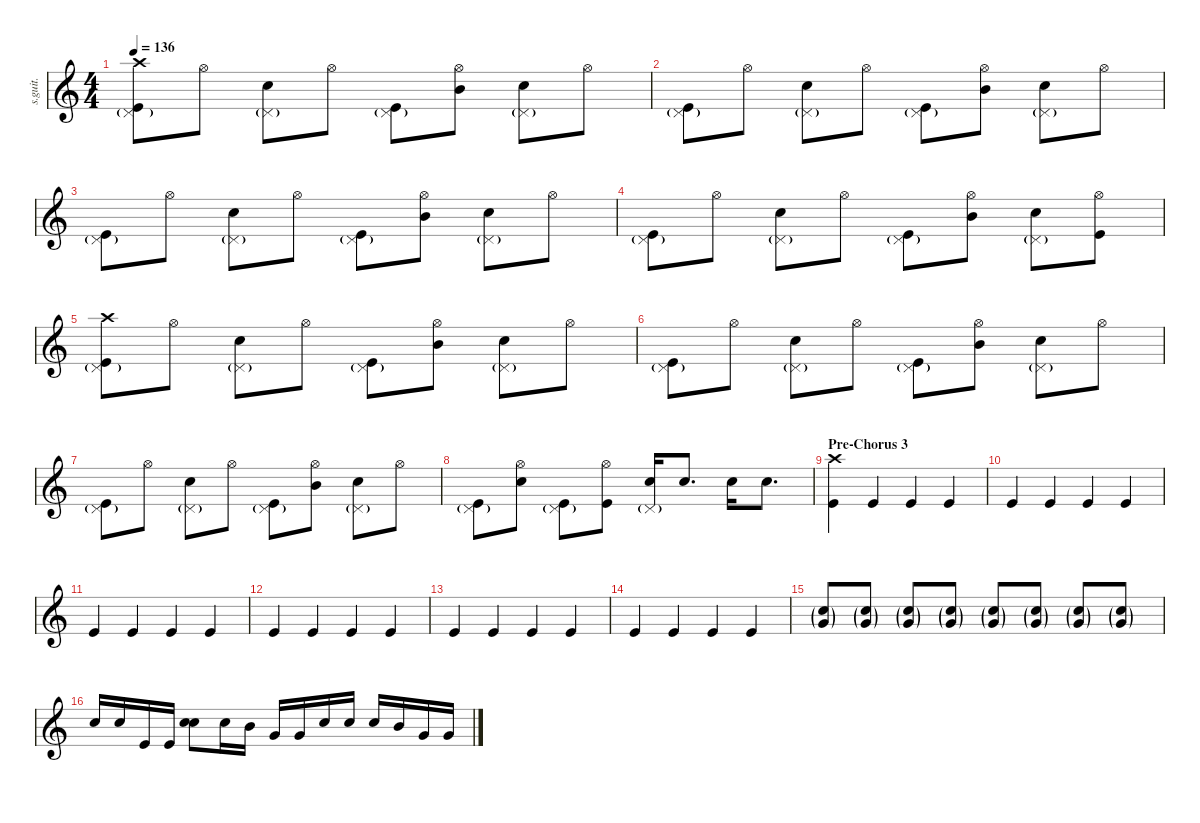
\defaultSystemsLayout 4
\hideDynamics
\bracketExtendMode nobrackets
\track ("Ilan Rubin" "s.guit.") {instrument percussion}
\staff {score}
\articulation defaults
\ts (4 4)
\tempo 136
\clef g2
\ks c
("Crash high (hit)" "Pedal Hi-Hat (hit)"{g} "Kick (hit)").8{lyrics (0 "") lyrics (1 "") lyrics (2 "") lyrics (3 "") lyrics (4 "") dy f} "Hi-Hat (open)".8{lyrics (0 "") lyrics (1 "") lyrics (2 "") lyrics (3 "") lyrics (4 "")} ("Electric Snare (hit)" "Pedal Hi-Hat (hit)"{g}).8{lyrics (0 "") lyrics (1 "") lyrics (2 "") lyrics (3 "") lyrics (4 "")} "Hi-Hat (open)".8{lyrics (0 "") lyrics (1 "") lyrics (2 "") lyrics (3 "") lyrics (4 "")} ("Pedal Hi-Hat (hit)"{g} "Kick (hit)").8{lyrics (0 "") lyrics (1 "") lyrics (2 "") lyrics (3 "") lyrics (4 "") dy mp} ("Hi-Hat (open)" "Mid Tom (hit)").8{lyrics (0 "") lyrics (1 "") lyrics (2 "") lyrics (3 "") lyrics (4 "") dy f} ("Electric Snare (hit)" "Pedal Hi-Hat (hit)"{g}).8{lyrics (0 "") lyrics (1 "") lyrics (2 "") lyrics (3 "") lyrics (4 "")} "Hi-Hat (open)".8{lyrics (0 "") lyrics (1 "") lyrics (2 "") lyrics (3 "") lyrics (4 "")} |
("Pedal Hi-Hat (hit)"{g} "Kick (hit)").8{lyrics (0 "") lyrics (1 "") lyrics (2 "") lyrics (3 "") lyrics (4 "") dy mp} "Hi-Hat (open)".8{lyrics (0 "") lyrics (1 "") lyrics (2 "") lyrics (3 "") lyrics (4 "") dy f} ("Electric Snare (hit)" "Pedal Hi-Hat (hit)"{g}).8{lyrics (0 "") lyrics (1 "") lyrics (2 "") lyrics (3 "") lyrics (4 "")} "Hi-Hat (open)".8{lyrics (0 "") lyrics (1 "") lyrics (2 "") lyrics (3 "") lyrics (4 "")} ("Pedal Hi-Hat (hit)"{g} "Kick (hit)").8{lyrics (0 "") lyrics (1 "") lyrics (2 "") lyrics (3 "") lyrics (4 "") dy mp} ("Hi-Hat (open)" "Mid Tom (hit)").8{lyrics (0 "") lyrics (1 "") lyrics (2 "") lyrics (3 "") lyrics (4 "") dy f} ("Electric Snare (hit)" "Pedal Hi-Hat (hit)"{g}).8{lyrics (0 "") lyrics (1 "") lyrics (2 "") lyrics (3 "") lyrics (4 "")} "Hi-Hat (open)".8{lyrics (0 "") lyrics (1 "") lyrics (2 "") lyrics (3 "") lyrics (4 "")} |
("Pedal Hi-Hat (hit)"{g} "Kick (hit)").8{lyrics (0 "") lyrics (1 "") lyrics (2 "") lyrics (3 "") lyrics (4 "") dy mp} "Hi-Hat (open)".8{lyrics (0 "") lyrics (1 "") lyrics (2 "") lyrics (3 "") lyrics (4 "") dy f} ("Electric Snare (hit)" "Pedal Hi-Hat (hit)"{g}).8{lyrics (0 "") lyrics (1 "") lyrics (2 "") lyrics (3 "") lyrics (4 "")} "Hi-Hat (open)".8{lyrics (0 "") lyrics (1 "") lyrics (2 "") lyrics (3 "") lyrics (4 "")} ("Pedal Hi-Hat (hit)"{g} "Kick (hit)").8{lyrics (0 "") lyrics (1 "") lyrics (2 "") lyrics (3 "") lyrics (4 "") dy mp} ("Hi-Hat (open)" "Mid Tom (hit)").8{lyrics (0 "") lyrics (1 "") lyrics (2 "") lyrics (3 "") lyrics (4 "") dy f} ("Electric Snare (hit)" "Pedal Hi-Hat (hit)"{g}).8{lyrics (0 "") lyrics (1 "") lyrics (2 "") lyrics (3 "") lyrics (4 "")} "Hi-Hat (open)".8{lyrics (0 "") lyrics (1 "") lyrics (2 "") lyrics (3 "") lyrics (4 "")} |
("Pedal Hi-Hat (hit)"{g} "Kick (hit)").8{lyrics (0 "") lyrics (1 "") lyrics (2 "") lyrics (3 "") lyrics (4 "") dy mp} "Hi-Hat (open)".8{lyrics (0 "") lyrics (1 "") lyrics (2 "") lyrics (3 "") lyrics (4 "") dy f} ("Electric Snare (hit)" "Pedal Hi-Hat (hit)"{g}).8{lyrics (0 "") lyrics (1 "") lyrics (2 "") lyrics (3 "") lyrics (4 "")} "Hi-Hat (open)".8{lyrics (0 "") lyrics (1 "") lyrics (2 "") lyrics (3 "") lyrics (4 "")} ("Pedal Hi-Hat (hit)"{g} "Kick (hit)").8{lyrics (0 "") lyrics (1 "") lyrics (2 "") lyrics (3 "") lyrics (4 "") dy mp} ("Hi-Hat (open)" "Mid Tom (hit)").8{lyrics (0 "") lyrics (1 "") lyrics (2 "") lyrics (3 "") lyrics (4 "") dy f} ("Electric Snare (hit)" "Pedal Hi-Hat (hit)"{g}).8{lyrics (0 "") lyrics (1 "") lyrics (2 "") lyrics (3 "") lyrics (4 "")} ("Hi-Hat (open)" "Kick (hit)").8{lyrics (0 "") lyrics (1 "") lyrics (2 "") lyrics (3 "") lyrics (4 "")} |
("Crash high (hit)" "Pedal Hi-Hat (hit)"{g} "Kick (hit)").8{lyrics (0 "") lyrics (1 "") lyrics (2 "") lyrics (3 "") lyrics (4 "")} "Hi-Hat (open)".8{lyrics (0 "") lyrics (1 "") lyrics (2 "") lyrics (3 "") lyrics (4 "")} ("Electric Snare (hit)" "Pedal Hi-Hat (hit)"{g}).8{lyrics (0 "") lyrics (1 "") lyrics (2 "") lyrics (3 "") lyrics (4 "")} "Hi-Hat (open)".8{lyrics (0 "") lyrics (1 "") lyrics (2 "") lyrics (3 "") lyrics (4 "")} ("Pedal Hi-Hat (hit)"{g} "Kick (hit)").8{lyrics (0 "") lyrics (1 "") lyrics (2 "") lyrics (3 "") lyrics (4 "") dy mp} ("Hi-Hat (open)" "Mid Tom (hit)").8{lyrics (0 "") lyrics (1 "") lyrics (2 "") lyrics (3 "") lyrics (4 "") dy f} ("Electric Snare (hit)" "Pedal Hi-Hat (hit)"{g}).8{lyrics (0 "") lyrics (1 "") lyrics (2 "") lyrics (3 "") lyrics (4 "")} "Hi-Hat (open)".8{lyrics (0 "") lyrics (1 "") lyrics (2 "") lyrics (3 "") lyrics (4 "")} |
("Pedal Hi-Hat (hit)"{g} "Kick (hit)").8{lyrics (0 "") lyrics (1 "") lyrics (2 "") lyrics (3 "") lyrics (4 "") dy mp} "Hi-Hat (open)".8{lyrics (0 "") lyrics (1 "") lyrics (2 "") lyrics (3 "") lyrics (4 "") dy f} ("Electric Snare (hit)" "Pedal Hi-Hat (hit)"{g}).8{lyrics (0 "") lyrics (1 "") lyrics (2 "") lyrics (3 "") lyrics (4 "")} "Hi-Hat (open)".8{lyrics (0 "") lyrics (1 "") lyrics (2 "") lyrics (3 "") lyrics (4 "")} ("Pedal Hi-Hat (hit)"{g} "Kick (hit)").8{lyrics (0 "") lyrics (1 "") lyrics (2 "") lyrics (3 "") lyrics (4 "") dy mp} ("Hi-Hat (open)" "Mid Tom (hit)").8{lyrics (0 "") lyrics (1 "") lyrics (2 "") lyrics (3 "") lyrics (4 "") dy f} ("Electric Snare (hit)" "Pedal Hi-Hat (hit)"{g}).8{lyrics (0 "") lyrics (1 "") lyrics (2 "") lyrics (3 "") lyrics (4 "")} "Hi-Hat (open)".8{lyrics (0 "") lyrics (1 "") lyrics (2 "") lyrics (3 "") lyrics (4 "")} |
("Pedal Hi-Hat (hit)"{g} "Kick (hit)").8{lyrics (0 "") lyrics (1 "") lyrics (2 "") lyrics (3 "") lyrics (4 "") dy mp} "Hi-Hat (open)".8{lyrics (0 "") lyrics (1 "") lyrics (2 "") lyrics (3 "") lyrics (4 "") dy f} ("Electric Snare (hit)" "Pedal Hi-Hat (hit)"{g}).8{lyrics (0 "") lyrics (1 "") lyrics (2 "") lyrics (3 "") lyrics (4 "")} "Hi-Hat (open)".8{lyrics (0 "") lyrics (1 "") lyrics (2 "") lyrics (3 "") lyrics (4 "")} ("Pedal Hi-Hat (hit)"{g} "Kick (hit)").8{lyrics (0 "") lyrics (1 "") lyrics (2 "") lyrics (3 "") lyrics (4 "") dy mp} ("Hi-Hat (open)" "Mid Tom (hit)").8{lyrics (0 "") lyrics (1 "") lyrics (2 "") lyrics (3 "") lyrics (4 "") dy f} ("Electric Snare (hit)" "Pedal Hi-Hat (hit)"{g}).8{lyrics (0 "") lyrics (1 "") lyrics (2 "") lyrics (3 "") lyrics (4 "")} "Hi-Hat (open)".8{lyrics (0 "") lyrics (1 "") lyrics (2 "") lyrics (3 "") lyrics (4 "")} |
("Pedal Hi-Hat (hit)"{g} "Kick (hit)").8{lyrics (0 "") lyrics (1 "") lyrics (2 "") lyrics (3 "") lyrics (4 "") dy mp} ("Hi-Hat (open)" "Electric Snare (hit)").8{lyrics (0 "") lyrics (1 "") lyrics (2 "") lyrics (3 "") lyrics (4 "") dy f} ("Pedal Hi-Hat (hit)"{g} "Kick (hit)").8{lyrics (0 "") lyrics (1 "") lyrics (2 "") lyrics (3 "") lyrics (4 "") dy mp} ("Hi-Hat (open)" "Kick (hit)").8{lyrics (0 "") lyrics (1 "") lyrics (2 "") lyrics (3 "") lyrics (4 "") dy f} ("Electric Snare (hit)" "Pedal Hi-Hat (hit)"{g}).16{lyrics (0 "") lyrics (1 "") lyrics (2 "") lyrics (3 "") lyrics (4 "")} "Electric Snare (hit)".8{d lyrics (0 "") lyrics (1 "") lyrics (2 "") lyrics (3 "") lyrics (4 "")} "Electric Snare (hit)".16{lyrics (0 "") lyrics (1 "") lyrics (2 "") lyrics (3 "") lyrics (4 "")} "Electric Snare (hit)".8{d lyrics (0 "") lyrics (1 "") lyrics (2 "") lyrics (3 "") lyrics (4 "")} |
\section ("" "Pre-Chorus 3")
("Crash high (hit)" "Kick (hit)").4{lyrics (0 "") lyrics (1 "") lyrics (2 "") lyrics (3 "") lyrics (4 "")} "Kick (hit)".4{lyrics (0 "") lyrics (1 "") lyrics (2 "") lyrics (3 "") lyrics (4 "") dy ff} "Kick (hit)".4{lyrics (0 "") lyrics (1 "") lyrics (2 "") lyrics (3 "") lyrics (4 "")} "Kick (hit)".4{lyrics (0 "") lyrics (1 "") lyrics (2 "") lyrics (3 "") lyrics (4 "")} |
"Kick (hit)".4{lyrics (0 "") lyrics (1 "") lyrics (2 "") lyrics (3 "") lyrics (4 "")} "Kick (hit)".4{lyrics (0 "") lyrics (1 "") lyrics (2 "") lyrics (3 "") lyrics (4 "")} "Kick (hit)".4{lyrics (0 "") lyrics (1 "") lyrics (2 "") lyrics (3 "") lyrics (4 "")} "Kick (hit)".4{lyrics (0 "") lyrics (1 "") lyrics (2 "") lyrics (3 "") lyrics (4 "")} |
"Kick (hit)".4{lyrics (0 "") lyrics (1 "") lyrics (2 "") lyrics (3 "") lyrics (4 "")} "Kick (hit)".4{lyrics (0 "") lyrics (1 "") lyrics (2 "") lyrics (3 "") lyrics (4 "")} "Kick (hit)".4{lyrics (0 "") lyrics (1 "") lyrics (2 "") lyrics (3 "") lyrics (4 "")} "Kick (hit)".4{lyrics (0 "") lyrics (1 "") lyrics (2 "") lyrics (3 "") lyrics (4 "")} |
"Kick (hit)".4{lyrics (0 "") lyrics (1 "") lyrics (2 "") lyrics (3 "") lyrics (4 "")} "Kick (hit)".4{lyrics (0 "") lyrics (1 "") lyrics (2 "") lyrics (3 "") lyrics (4 "")} "Kick (hit)".4{lyrics (0 "") lyrics (1 "") lyrics (2 "") lyrics (3 "") lyrics (4 "")} "Kick (hit)".4{lyrics (0 "") lyrics (1 "") lyrics (2 "") lyrics (3 "") lyrics (4 "")} |
"Kick (hit)".4{lyrics (0 "") lyrics (1 "") lyrics (2 "") lyrics (3 "") lyrics (4 "")} "Kick (hit)".4{lyrics (0 "") lyrics (1 "") lyrics (2 "") lyrics (3 "") lyrics (4 "")} "Kick (hit)".4{lyrics (0 "") lyrics (1 "") lyrics (2 "") lyrics (3 "") lyrics (4 "")} "Kick (hit)".4{lyrics (0 "") lyrics (1 "") lyrics (2 "") lyrics (3 "") lyrics (4 "")} |
"Kick (hit)".4{lyrics (0 "") lyrics (1 "") lyrics (2 "") lyrics (3 "") lyrics (4 "")} "Kick (hit)".4{lyrics (0 "") lyrics (1 "") lyrics (2 "") lyrics (3 "") lyrics (4 "")} "Kick (hit)".4{lyrics (0 "") lyrics (1 "") lyrics (2 "") lyrics (3 "") lyrics (4 "")} "Kick (hit)".4{lyrics (0 "") lyrics (1 "") lyrics (2 "") lyrics (3 "") lyrics (4 "")} |
("Electric Snare (hit)"{g} "Very Low Tom (hit)"{g}).8{lyrics (0 "") lyrics (1 "") lyrics (2 "") lyrics (3 "") lyrics (4 "") dy pp} ("Electric Snare (hit)"{g} "Very Low Tom (hit)"{g}).8{lyrics (0 "") lyrics (1 "") lyrics (2 "") lyrics (3 "") lyrics (4 "")} ("Electric Snare (hit)"{g} "Very Low Tom (hit)"{g}).8{lyrics (0 "") lyrics (1 "") lyrics (2 "") lyrics (3 "") lyrics (4 "")} ("Electric Snare (hit)"{g} "Very Low Tom (hit)"{g}).8{lyrics (0 "") lyrics (1 "") lyrics (2 "") lyrics (3 "") lyrics (4 "")} ("Electric Snare (hit)"{g} "Very Low Tom (hit)"{g}).8{lyrics (0 "") lyrics (1 "") lyrics (2 "") lyrics (3 "") lyrics (4 "") dy p} ("Electric Snare (hit)"{g} "Very Low Tom (hit)"{g}).8{lyrics (0 "") lyrics (1 "") lyrics (2 "") lyrics (3 "") lyrics (4 "")} ("Electric Snare (hit)"{g} "Very Low Tom (hit)"{g}).8{lyrics (0 "") lyrics (1 "") lyrics (2 "") lyrics (3 "") lyrics (4 "")} ("Electric Snare (hit)"{g} "Very Low Tom (hit)"{g}).8{lyrics (0 "") lyrics (1 "") lyrics (2 "") lyrics (3 "") lyrics (4 "")} |
"Electric Snare (hit)".16{lyrics (0 "") lyrics (1 "") lyrics (2 "") lyrics (3 "") lyrics (4 "") dy f} "Electric Snare (hit)".16{lyrics (0 "") lyrics (1 "") lyrics (2 "") lyrics (3 "") lyrics (4 "")} "Kick (hit)".16{lyrics (0 "") lyrics (1 "") lyrics (2 "") lyrics (3 "") lyrics (4 "") dy ff} "Kick (hit)".16{lyrics (0 "") lyrics (1 "") lyrics (2 "") lyrics (3 "") lyrics (4 "")} ("Electric Snare (hit)" "Electric Snare (hit)").8{bd 30 lyrics (0 "") lyrics (1 "") lyrics (2 "") lyrics (3 "") lyrics (4 "") dy f} "Electric Snare (hit)".16{lyrics (0 "") lyrics (1 "") lyrics (2 "") lyrics (3 "") lyrics (4 "")} "Mid Tom (hit)".16{lyrics (0 "") lyrics (1 "") lyrics (2 "") lyrics (3 "") lyrics (4 "")} "Very Low Tom (hit)".16{lyrics (0 "") lyrics (1 "") lyrics (2 "") lyrics (3 "") lyrics (4 "")} "Very Low Tom (hit)".16{lyrics (0 "") lyrics (1 "") lyrics (2 "") lyrics (3 "") lyrics (4 "")} "Electric Snare (hit)".16{lyrics (0 "") lyrics (1 "") lyrics (2 "") lyrics (3 "") lyrics (4 "")} "Electric Snare (hit)".16{lyrics (0 "") lyrics (1 "") lyrics (2 "") lyrics (3 "") lyrics (4 "")} "Electric Snare (hit)".16{lyrics (0 "") lyrics (1 "") lyrics (2 "") lyrics (3 "") lyrics (4 "")} "Mid Tom (hit)".16{lyrics (0 "") lyrics (1 "") lyrics (2 "") lyrics (3 "") lyrics (4 "")} "Very Low Tom (hit)".16{lyrics (0 "") lyrics (1 "") lyrics (2 "") lyrics (3 "") lyrics (4 "")} "Very Low Tom (hit)".16{lyrics (0 "") lyrics (1 "") lyrics (2 "") lyrics (3 "") lyrics (4 "")}
